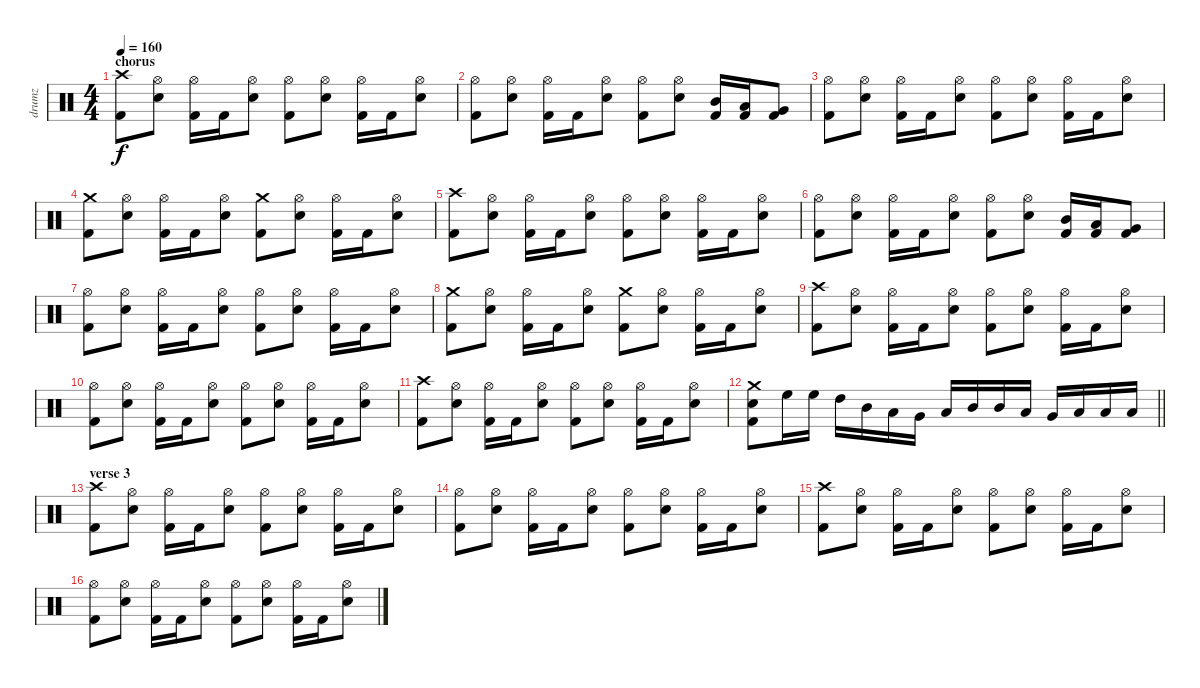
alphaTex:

\track ("drumz" "drumz") {instrument percussion}
\staff {score}
\articulation defaults
\ts (4 4)
\section ("" "chorus")
\tempo 160
\clef neutral
\ks c
("Crash high (hit)" "Kick (hit) 2").8{dy f} ("Hi-Hat (open)" "Electric Snare (hit)").8 ("Hi-Hat (open)" "Kick (hit) 2").16 "Kick (hit) 2".16 ("Hi-Hat (open)" "Electric Snare (hit)").8 ("Hi-Hat (open)" "Kick (hit) 2").8 ("Hi-Hat (open)" "Electric Snare (hit)").8 ("Hi-Hat (open)" "Kick (hit) 2").16 "Kick (hit) 2".16 ("Hi-Hat (open)" "Electric Snare (hit)").8 |
("Hi-Hat (open)" "Kick (hit) 2").8 ("Hi-Hat (open)" "Electric Snare (hit)").8 ("Hi-Hat (open)" "Kick (hit) 2").16 "Kick (hit) 2".16 ("Hi-Hat (open)" "Electric Snare (hit)").8 ("Hi-Hat (open)" "Kick (hit) 2").8 ("Hi-Hat (open)" "Electric Snare (hit)").8 ("Mid Tom (hit)" "Kick (hit) 2").16 ("Low Tom (hit)" "Kick (hit) 2").16 ("Very Low Tom (hit)" "Kick (hit) 2").8 |
("Hi-Hat (open)" "Kick (hit) 2").8 ("Hi-Hat (open)" "Electric Snare (hit)").8 ("Hi-Hat (open)" "Kick (hit) 2").16 "Kick (hit) 2".16 ("Hi-Hat (open)" "Electric Snare (hit)").8 ("Hi-Hat (open)" "Kick (hit) 2").8 ("Hi-Hat (open)" "Electric Snare (hit)").8 ("Hi-Hat (open)" "Kick (hit) 2").16 "Kick (hit) 2".16 ("Hi-Hat (open)" "Electric Snare (hit)").8 |
("Crash medium (hit)" "Kick (hit) 2").8 ("Hi-Hat (open)" "Electric Snare (hit)").8 ("Hi-Hat (open)" "Kick (hit) 2").16 "Kick (hit) 2".16 ("Hi-Hat (open)" "Electric Snare (hit)").8 ("Crash medium (hit)" "Kick (hit) 2").8 ("Hi-Hat (open)" "Electric Snare (hit)").8 ("Hi-Hat (open)" "Kick (hit) 2").16 "Kick (hit) 2".16 ("Hi-Hat (open)" "Electric Snare (hit)").8 |
("Crash high (hit)" "Kick (hit) 2").8 ("Hi-Hat (open)" "Electric Snare (hit)").8 ("Hi-Hat (open)" "Kick (hit) 2").16 "Kick (hit) 2".16 ("Hi-Hat (open)" "Electric Snare (hit)").8 ("Hi-Hat (open)" "Kick (hit) 2").8 ("Hi-Hat (open)" "Electric Snare (hit)").8 ("Hi-Hat (open)" "Kick (hit) 2").16 "Kick (hit) 2".16 ("Hi-Hat (open)" "Electric Snare (hit)").8 |
("Hi-Hat (open)" "Kick (hit) 2").8 ("Hi-Hat (open)" "Electric Snare (hit)").8 ("Hi-Hat (open)" "Kick (hit) 2").16 "Kick (hit) 2".16 ("Hi-Hat (open)" "Electric Snare (hit)").8 ("Hi-Hat (open)" "Kick (hit) 2").8 ("Hi-Hat (open)" "Electric Snare (hit)").8 ("Mid Tom (hit)" "Kick (hit) 2").16 ("Low Tom (hit)" "Kick (hit) 2").16 ("Very Low Tom (hit)" "Kick (hit) 2").8 |
("Hi-Hat (open)" "Kick (hit) 2").8 ("Hi-Hat (open)" "Electric Snare (hit)").8 ("Hi-Hat (open)" "Kick (hit) 2").16 "Kick (hit) 2".16 ("Hi-Hat (open)" "Electric Snare (hit)").8 ("Hi-Hat (open)" "Kick (hit) 2").8 ("Hi-Hat (open)" "Electric Snare (hit)").8 ("Hi-Hat (open)" "Kick (hit) 2").16 "Kick (hit) 2".16 ("Hi-Hat (open)" "Electric Snare (hit)").8 |
("Crash medium (hit)" "Kick (hit) 2").8 ("Hi-Hat (open)" "Electric Snare (hit)").8 ("Hi-Hat (open)" "Kick (hit) 2").16 "Kick (hit) 2".16 ("Hi-Hat (open)" "Electric Snare (hit)").8 ("Crash medium (hit)" "Kick (hit) 2").8 ("Hi-Hat (open)" "Electric Snare (hit)").8 ("Hi-Hat (open)" "Kick (hit) 2").16 "Kick (hit) 2".16 ("Hi-Hat (open)" "Electric Snare (hit)").8 |
("Crash high (hit)" "Kick (hit) 2").8 ("Hi-Hat (open)" "Electric Snare (hit)").8 ("Hi-Hat (open)" "Kick (hit) 2").16 "Kick (hit) 2".16 ("Hi-Hat (open)" "Electric Snare (hit)").8 ("Hi-Hat (open)" "Kick (hit) 2").8 ("Hi-Hat (open)" "Electric Snare (hit)").8 ("Hi-Hat (open)" "Kick (hit) 2").16 "Kick (hit) 2".16 ("Hi-Hat (open)" "Electric Snare (hit)").8 |
("Hi-Hat (open)" "Kick (hit) 2").8 ("Hi-Hat (open)" "Electric Snare (hit)").8 ("Hi-Hat (open)" "Kick (hit) 2").16 "Kick (hit) 2".16 ("Hi-Hat (open)" "Electric Snare (hit)").8 ("Hi-Hat (open)" "Kick (hit) 2").8 ("Hi-Hat (open)" "Electric Snare (hit)").8 ("Hi-Hat (open)" "Kick (hit) 2").16 "Kick (hit) 2".16 ("Hi-Hat (open)" "Electric Snare (hit)").8 |
("Crash high (hit)" "Kick (hit) 2").8 ("Hi-Hat (open)" "Electric Snare (hit)").8 ("Hi-Hat (open)" "Kick (hit) 2").16 "Kick (hit) 2".16 ("Hi-Hat (open)" "Electric Snare (hit)").8 ("Hi-Hat (open)" "Kick (hit) 2").8 ("Hi-Hat (open)" "Electric Snare (hit)").8 ("Hi-Hat (open)" "Kick (hit) 2").16 "Kick (hit) 2".16 ("Hi-Hat (open)" "Electric Snare (hit)").8 |
\barLineRight lightlight
("Crash medium (hit)" "Electric Snare (hit)" "Kick (hit) 2").8 "High Floor Tom (hit)".16 "High Floor Tom (hit)".16 "High Tom (hit)".16 "Mid Tom (hit)".16 "Low Tom (hit)".16 "Very Low Tom (hit)".16 "Low Floor Tom (hit)".16 "Mid Tom (hit)".16 "Mid Tom (hit)".16 "Low Tom (hit)".16 "Very Low Tom (hit)".16 "Low Floor Tom (hit)".16 "Low Floor Tom (hit)".16 "Low Floor Tom (hit)".16 |
\section ("" "verse 3")
("Crash high (hit)" "Kick (hit) 2").8 ("Hi-Hat (open)" "Electric Snare (hit)").8 ("Hi-Hat (open)" "Kick (hit) 2").16 "Kick (hit) 2".16 ("Hi-Hat (open)" "Electric Snare (hit)").8 ("Hi-Hat (open)" "Kick (hit) 2").8 ("Hi-Hat (open)" "Electric Snare (hit)").8 ("Hi-Hat (open)" "Kick (hit) 2").16 "Kick (hit) 2".16 ("Hi-Hat (open)" "Electric Snare (hit)").8 |
("Hi-Hat (open)" "Kick (hit) 2").8 ("Hi-Hat (open)" "Electric Snare (hit)").8 ("Hi-Hat (open)" "Kick (hit) 2").16 "Kick (hit) 2".16 ("Hi-Hat (open)" "Electric Snare (hit)").8 ("Hi-Hat (open)" "Kick (hit) 2").8 ("Hi-Hat (open)" "Electric Snare (hit)").8 ("Hi-Hat (open)" "Kick (hit) 2").16 "Kick (hit) 2".16 ("Hi-Hat (open)" "Electric Snare (hit)").8 |
("Crash high (hit)" "Kick (hit) 2").8 ("Hi-Hat (open)" "Electric Snare (hit)").8 ("Hi-Hat (open)" "Kick (hit) 2").16 "Kick (hit) 2".16 ("Hi-Hat (open)" "Electric Snare (hit)").8 ("Hi-Hat (open)" "Kick (hit) 2").8 ("Hi-Hat (open)" "Electric Snare (hit)").8 ("Hi-Hat (open)" "Kick (hit) 2").16 "Kick (hit) 2".16 ("Hi-Hat (open)" "Electric Snare (hit)").8 |
("Hi-Hat (open)" "Kick (hit) 2").8 ("Hi-Hat (open)" "Electric Snare (hit)").8 ("Hi-Hat (open)" "Kick (hit) 2").16 "Kick (hit) 2".16 ("Hi-Hat (open)" "Electric Snare (hit)").8 ("Hi-Hat (open)" "Kick (hit) 2").8 ("Hi-Hat (open)" "Electric Snare (hit)").8 ("Hi-Hat (open)" "Kick (hit) 2").16 "Kick (hit) 2".16 ("Hi-Hat (open)" "Electric Snare (hit)").8
